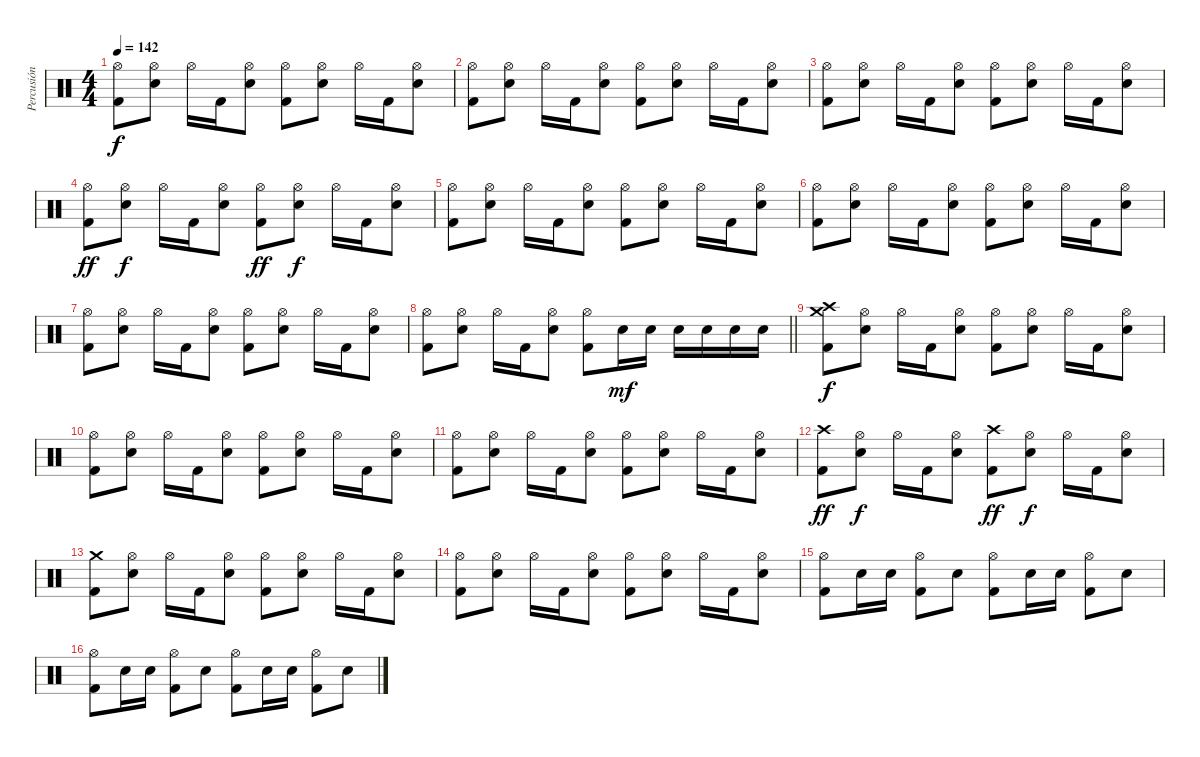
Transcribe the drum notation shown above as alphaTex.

\track ("Percusión" "Percusión") {instrument percussion}
\staff {score}
\articulation defaults
\ts (4 4)
\tempo 142
\clef neutral
\ks c
("Hi-Hat (open)" "Kick (hit) 2").8{dy f} ("Hi-Hat (open)" "Electric Snare (hit)").8 "Hi-Hat (open)".16 "Kick (hit) 2".16 ("Hi-Hat (open)" "Electric Snare (hit)").8 ("Hi-Hat (open)" "Kick (hit) 2").8 ("Hi-Hat (open)" "Electric Snare (hit)").8 "Hi-Hat (open)".16 "Kick (hit) 2".16 ("Hi-Hat (open)" "Electric Snare (hit)").8 |
("Hi-Hat (open)" "Kick (hit) 2").8 ("Hi-Hat (open)" "Electric Snare (hit)").8 "Hi-Hat (open)".16 "Kick (hit) 2".16 ("Hi-Hat (open)" "Electric Snare (hit)").8 ("Hi-Hat (open)" "Kick (hit) 2").8 ("Hi-Hat (open)" "Electric Snare (hit)").8 "Hi-Hat (open)".16 "Kick (hit) 2".16 ("Hi-Hat (open)" "Electric Snare (hit)").8 |
("Hi-Hat (open)" "Kick (hit) 2").8 ("Hi-Hat (open)" "Electric Snare (hit)").8 "Hi-Hat (open)".16 "Kick (hit) 2".16 ("Hi-Hat (open)" "Electric Snare (hit)").8 ("Hi-Hat (open)" "Kick (hit) 2").8 ("Hi-Hat (open)" "Electric Snare (hit)").8 "Hi-Hat (open)".16 "Kick (hit) 2".16 ("Hi-Hat (open)" "Electric Snare (hit)").8 |
("Hi-Hat (open)" "Kick (hit) 2").8{dy ff} ("Hi-Hat (open)" "Electric Snare (hit)").8{dy f} "Hi-Hat (open)".16 "Kick (hit) 2".16 ("Hi-Hat (open)" "Electric Snare (hit)").8 ("Hi-Hat (open)" "Kick (hit) 2").8{dy ff} ("Hi-Hat (open)" "Electric Snare (hit)").8{dy f} "Hi-Hat (open)".16 "Kick (hit) 2".16 ("Hi-Hat (open)" "Electric Snare (hit)").8 |
("Hi-Hat (open)" "Kick (hit) 2").8 ("Hi-Hat (open)" "Electric Snare (hit)").8 "Hi-Hat (open)".16 "Kick (hit) 2".16 ("Hi-Hat (open)" "Electric Snare (hit)").8 ("Hi-Hat (open)" "Kick (hit) 2").8 ("Hi-Hat (open)" "Electric Snare (hit)").8 "Hi-Hat (open)".16 "Kick (hit) 2".16 ("Hi-Hat (open)" "Electric Snare (hit)").8 |
("Hi-Hat (open)" "Kick (hit) 2").8 ("Hi-Hat (open)" "Electric Snare (hit)").8 "Hi-Hat (open)".16 "Kick (hit) 2".16 ("Hi-Hat (open)" "Electric Snare (hit)").8 ("Hi-Hat (open)" "Kick (hit) 2").8 ("Hi-Hat (open)" "Electric Snare (hit)").8 "Hi-Hat (open)".16 "Kick (hit) 2".16 ("Hi-Hat (open)" "Electric Snare (hit)").8 |
("Hi-Hat (open)" "Kick (hit) 2").8 ("Hi-Hat (open)" "Electric Snare (hit)").8 "Hi-Hat (open)".16 "Kick (hit) 2".16 ("Hi-Hat (open)" "Electric Snare (hit)").8 ("Hi-Hat (open)" "Kick (hit) 2").8 ("Hi-Hat (open)" "Electric Snare (hit)").8 "Hi-Hat (open)".16 "Kick (hit) 2".16 ("Hi-Hat (open)" "Electric Snare (hit)").8 |
\barLineRight lightlight
("Hi-Hat (open)" "Kick (hit) 2").8 ("Hi-Hat (open)" "Electric Snare (hit)").8 "Hi-Hat (open)".16 "Kick (hit) 2".16 ("Hi-Hat (open)" "Electric Snare (hit)").8 ("Hi-Hat (open)" "Kick (hit) 2").8 "Electric Snare (hit)".16{dy mf} "Electric Snare (hit)".16 "Electric Snare (hit)".16 "Electric Snare (hit)".16 "Electric Snare (hit)".16 "Electric Snare (hit)".16 |
\section ("" "")
("Crash high (hit)" "Crash medium (hit)" "Kick (hit) 2").8{dy f} ("Hi-Hat (open)" "Electric Snare (hit)").8 "Hi-Hat (open)".16 "Kick (hit) 2".16 ("Hi-Hat (open)" "Electric Snare (hit)").8 ("Hi-Hat (open)" "Kick (hit) 2").8 ("Hi-Hat (open)" "Electric Snare (hit)").8 "Hi-Hat (open)".16 "Kick (hit) 2".16 ("Hi-Hat (open)" "Electric Snare (hit)").8 |
("Hi-Hat (open)" "Kick (hit) 2").8 ("Hi-Hat (open)" "Electric Snare (hit)").8 "Hi-Hat (open)".16 "Kick (hit) 2".16 ("Hi-Hat (open)" "Electric Snare (hit)").8 ("Hi-Hat (open)" "Kick (hit) 2").8 ("Hi-Hat (open)" "Electric Snare (hit)").8 "Hi-Hat (open)".16 "Kick (hit) 2".16 ("Hi-Hat (open)" "Electric Snare (hit)").8 |
("Hi-Hat (open)" "Kick (hit) 2").8 ("Hi-Hat (open)" "Electric Snare (hit)").8 "Hi-Hat (open)".16 "Kick (hit) 2".16 ("Hi-Hat (open)" "Electric Snare (hit)").8 ("Hi-Hat (open)" "Kick (hit) 2").8 ("Hi-Hat (open)" "Electric Snare (hit)").8 "Hi-Hat (open)".16 "Kick (hit) 2".16 ("Hi-Hat (open)" "Electric Snare (hit)").8 |
("Crash high (hit)" "Kick (hit) 2").8{dy ff} ("Hi-Hat (open)" "Electric Snare (hit)").8{dy f} "Hi-Hat (open)".16 "Kick (hit) 2".16 ("Hi-Hat (open)" "Electric Snare (hit)").8 ("Crash high (hit)" "Kick (hit) 2").8{dy ff} ("Hi-Hat (open)" "Electric Snare (hit)").8{dy f} "Hi-Hat (open)".16 "Kick (hit) 2".16 ("Hi-Hat (open)" "Electric Snare (hit)").8 |
("Crash medium (hit)" "Kick (hit) 2").8 ("Hi-Hat (open)" "Electric Snare (hit)").8 "Hi-Hat (open)".16 "Kick (hit) 2".16 ("Hi-Hat (open)" "Electric Snare (hit)").8 ("Hi-Hat (open)" "Kick (hit) 2").8 ("Hi-Hat (open)" "Electric Snare (hit)").8 "Hi-Hat (open)".16 "Kick (hit) 2".16 ("Hi-Hat (open)" "Electric Snare (hit)").8 |
("Hi-Hat (open)" "Kick (hit) 2").8 ("Hi-Hat (open)" "Electric Snare (hit)").8 "Hi-Hat (open)".16 "Kick (hit) 2".16 ("Hi-Hat (open)" "Electric Snare (hit)").8 ("Hi-Hat (open)" "Kick (hit) 2").8 ("Hi-Hat (open)" "Electric Snare (hit)").8 "Hi-Hat (open)".16 "Kick (hit) 2".16 ("Hi-Hat (open)" "Electric Snare (hit)").8 |
("Hi-Hat (open)" "Kick (hit) 2").8 "Electric Snare (hit)".16 "Electric Snare (hit)".16 ("Hi-Hat (open)" "Kick (hit) 2").8 "Electric Snare (hit)".8 ("Hi-Hat (open)" "Kick (hit) 2").8 "Electric Snare (hit)".16 "Electric Snare (hit)".16 ("Hi-Hat (open)" "Kick (hit) 2").8 "Electric Snare (hit)".8 |
("Hi-Hat (open)" "Kick (hit) 2").8 "Electric Snare (hit)".16 "Electric Snare (hit)".16 ("Hi-Hat (open)" "Kick (hit) 2").8 "Electric Snare (hit)".8 ("Hi-Hat (open)" "Kick (hit) 2").8 "Electric Snare (hit)".16 "Electric Snare (hit)".16 ("Hi-Hat (open)" "Kick (hit) 2").8 "Electric Snare (hit)".8
